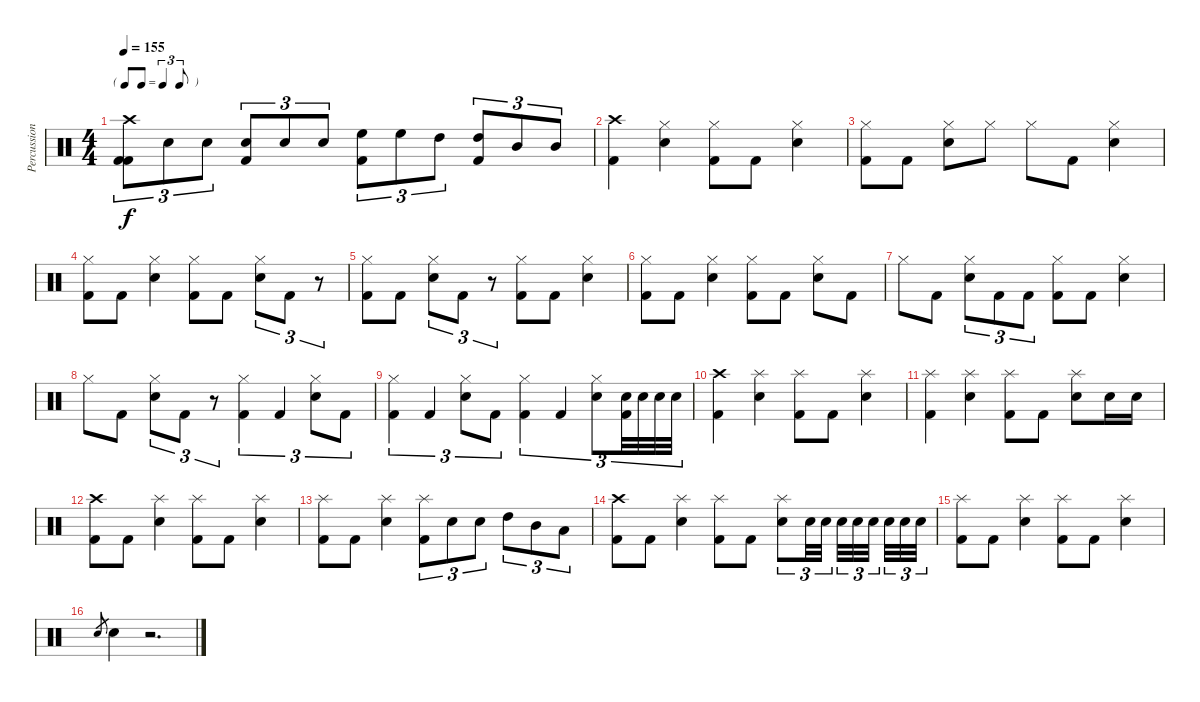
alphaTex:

\track ("Percussion" "Percussion") {instrument percussion}
\staff {score}
\articulation defaults
\ts (4 4)
\tf triplet8th
\tempo 155
\clef neutral
\ks c
("Kick (hit) 2" "Kick (hit) 2" "Crash high (hit)").8{tu (3 2) dy f} "Snare (hit) 2".8{tu (3 2)} "Snare (hit) 2".8{tu (3 2)} ("Snare (hit) 2" "Kick (hit) 2").8{tu (3 2)} "Snare (hit) 2".8{tu (3 2)} "Snare (hit) 2".8{tu (3 2)} ("Kick (hit) 2" "High Floor Tom (hit)").8{tu (3 2)} "High Floor Tom (hit)".8{tu (3 2)} "High Tom (hit)".8{tu (3 2)} ("Kick (hit) 2" "High Tom (hit)").8{tu (3 2)} "Mid Tom (hit)".8{tu (3 2)} "Mid Tom (hit)".8{tu (3 2)} |
("Kick (hit) 2" "Crash high (hit)").4 ("Snare (hit) 2" "Hi-Hat (closed)").4 ("Kick (hit) 2" "Hi-Hat (closed)").8 "Kick (hit) 2".8 ("Snare (hit) 2" "Hi-Hat (closed)").4 |
("Kick (hit) 2" "Hi-Hat (closed)").8 "Kick (hit) 2".8 ("Snare (hit) 2" "Hi-Hat (closed)").8 "Hi-Hat (closed)".8 "Hi-Hat (closed)".8 "Kick (hit) 2".8 ("Snare (hit) 2" "Hi-Hat (closed)").4 |
("Kick (hit) 2" "Hi-Hat (closed)").8 "Kick (hit) 2".8 ("Snare (hit) 2" "Hi-Hat (closed)").4 ("Kick (hit) 2" "Hi-Hat (closed)").8 "Kick (hit) 2".8 ("Snare (hit) 2" "Hi-Hat (closed)").8{tu (3 2)} "Kick (hit) 2".8{tu (3 2)} r.8{tu (3 2)} |
("Kick (hit) 2" "Hi-Hat (closed)").8 "Kick (hit) 2".8 ("Snare (hit) 2" "Hi-Hat (closed)").8{tu (3 2)} "Kick (hit) 2".8{tu (3 2)} r.8{tu (3 2)} ("Kick (hit) 2" "Hi-Hat (closed)").8 "Kick (hit) 2".8 ("Snare (hit) 2" "Hi-Hat (closed)").4 |
("Kick (hit) 2" "Hi-Hat (closed)").8 "Kick (hit) 2".8 ("Snare (hit) 2" "Hi-Hat (closed)").4 ("Kick (hit) 2" "Hi-Hat (closed)").8 "Kick (hit) 2".8 ("Snare (hit) 2" "Hi-Hat (closed)").8 "Kick (hit) 2".8 |
"Hi-Hat (closed)".8 "Kick (hit) 2".8 ("Snare (hit) 2" "Hi-Hat (closed)").8{tu (3 2)} "Kick (hit) 2".8{tu (3 2)} "Kick (hit) 2".8{tu (3 2)} ("Kick (hit) 2" "Hi-Hat (closed)").8 "Kick (hit) 2".8 ("Snare (hit) 2" "Hi-Hat (closed)").4 |
"Hi-Hat (closed)".8 "Kick (hit) 2".8 ("Snare (hit) 2" "Hi-Hat (closed)").8{tu (3 2)} "Kick (hit) 2".8{tu (3 2)} r.8{tu (3 2)} ("Kick (hit) 2" "Hi-Hat (closed)").4{tu (3 2)} "Kick (hit) 2".4{tu (3 2)} ("Snare (hit) 2" "Hi-Hat (closed)").8{tu (3 2)} "Kick (hit) 2".8{tu (3 2)} |
("Kick (hit) 2" "Hi-Hat (closed)").4{tu (3 2)} "Kick (hit) 2".4{tu (3 2)} ("Snare (hit) 2" "Hi-Hat (closed)").8{tu (3 2)} "Kick (hit) 2".8{tu (3 2)} ("Kick (hit) 2" "Hi-Hat (closed)").4{tu (3 2)} "Kick (hit) 2".4{tu (3 2)} ("Snare (hit) 2" "Hi-Hat (closed)").8{tu (3 2)} ("Snare (hit) 2" "Kick (hit) 2").32{tu (3 2)} "Snare (hit) 2".32{tu (3 2)} "Snare (hit) 2".32{tu (3 2)} "Snare (hit) 2".32{tu (3 2)} |
("Kick (hit) 2" "Crash high (hit)").4 ("Snare (hit) 2" "Splash (hit)").4 ("Kick (hit) 2" "Splash (hit)").8 "Kick (hit) 2".8 ("Snare (hit) 2" "Splash (hit)").4 |
("Kick (hit) 2" "Splash (hit)").4 ("Snare (hit) 2" "Splash (hit)").4 ("Kick (hit) 2" "Splash (hit)").8 "Kick (hit) 2".8 ("Snare (hit) 2" "Splash (hit)").8 "Snare (hit) 2".16 "Snare (hit) 2".16 |
("Kick (hit) 2" "Crash high (hit)").8 "Kick (hit) 2".8 ("Snare (hit) 2" "Splash (hit)").4 ("Kick (hit) 2" "Splash (hit)").8 "Kick (hit) 2".8 ("Snare (hit) 2" "Splash (hit)").4 |
("Kick (hit) 2" "Splash (hit)").8 "Kick (hit) 2".8 ("Snare (hit) 2" "Splash (hit)").4 ("Kick (hit) 2" "Splash (hit)").8{tu (3 2)} "Snare (hit) 2".8{tu (3 2)} "Snare (hit) 2".8{tu (3 2)} "High Tom (hit)".8{tu (3 2)} "Mid Tom (hit)".8{tu (3 2)} "Low Tom (hit)".8{tu (3 2)} |
("Kick (hit) 2" "Crash high (hit)").8 "Kick (hit) 2".8 ("Snare (hit) 2" "Splash (hit)").4 ("Kick (hit) 2" "Splash (hit)").8 "Kick (hit) 2".8 ("Snare (hit) 2" "Splash (hit)").8{tu (3 2)} "Snare (hit) 2".32{tu (3 2)} "Snare (hit) 2".32{tu (3 2)} "Snare (hit) 2".32{tu (3 2)} "Snare (hit) 2".32{tu (3 2)} "Snare (hit) 2".32{tu (3 2)} "Snare (hit) 2".32{tu (3 2)} "Snare (hit) 2".32{tu (3 2)} "Snare (hit) 2".32{tu (3 2)} |
("Kick (hit) 2" "Splash (hit)").8 "Kick (hit) 2".8 ("Snare (hit) 2" "Splash (hit)").4 ("Kick (hit) 2" "Splash (hit)").8 "Kick (hit) 2".8 ("Snare (hit) 2" "Splash (hit)").4 |
"Snare (hit) 2".8{gr} "Snare (hit) 2".4 r.2{d}
